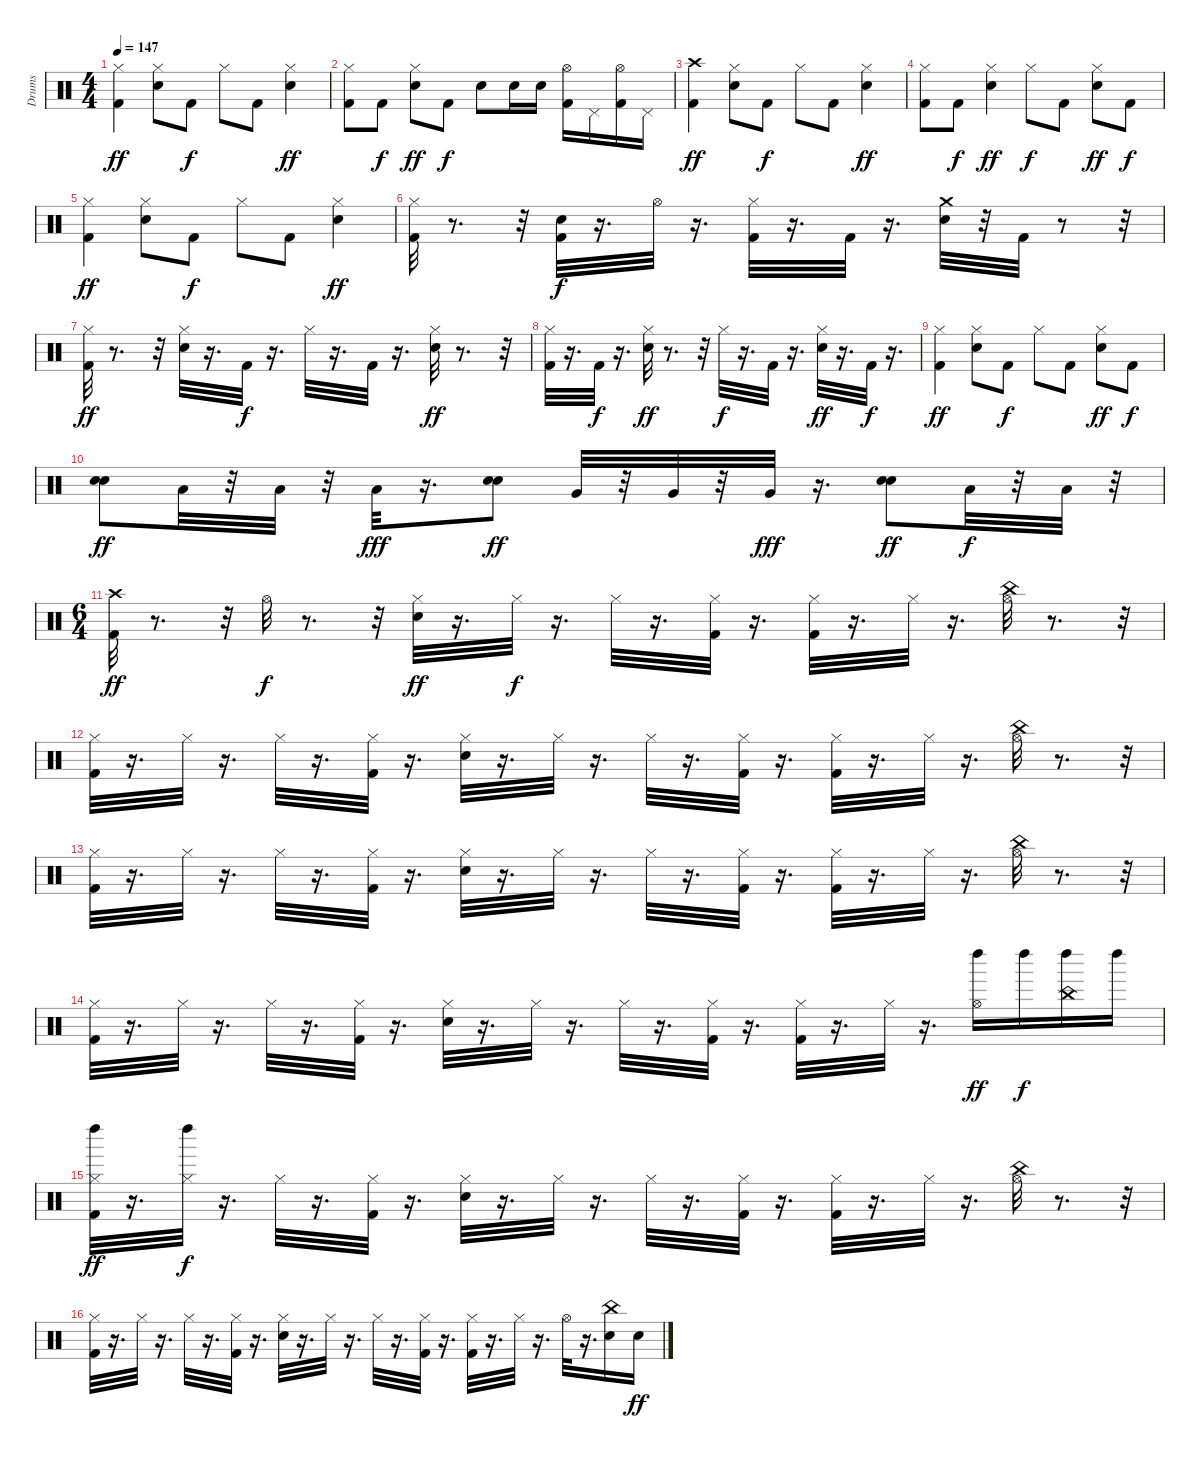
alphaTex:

\track ("Drums" "Drums") {instrument percussion}
\staff {score}
\articulation defaults
\ts (4 4)
\tempo 147
\clef neutral
\ks c
("Kick (hit) 2" "Hi-Hat (closed)").4{dy ff} ("Snare (hit) 2" "Hi-Hat (closed)").8 "Kick (hit) 2".8{dy f} "Hi-Hat (closed)".8 "Kick (hit) 2".8 ("Hi-Hat (closed)" "Snare (hit) 2").4{dy ff} |
("Kick (hit) 2" "Hi-Hat (closed)").8 "Kick (hit) 2".8{dy f} ("Snare (hit) 2" "Hi-Hat (closed)").8{dy ff} "Kick (hit) 2".8{dy f} "Snare (hit) 2".8 "Snare (hit) 2".16 "Snare (hit) 2".16 ("Hi-Hat (open)" "Kick (hit) 2").16 "Pedal Hi-Hat (hit)".16 ("Hi-Hat (open)" "Kick (hit) 2").16 "Pedal Hi-Hat (hit)".16 |
("Crash high (hit)" "Kick (hit) 2").4{dy ff} ("Snare (hit) 2" "Hi-Hat (closed)").8 "Kick (hit) 2".8{dy f} "Hi-Hat (closed)".8 "Kick (hit) 2".8 ("Hi-Hat (closed)" "Snare (hit) 2").4{dy ff} |
("Kick (hit) 2" "Hi-Hat (closed)").8 "Kick (hit) 2".8{dy f} ("Snare (hit) 2" "Hi-Hat (closed)").4{dy ff} "Hi-Hat (closed)".8{dy f} "Kick (hit) 2".8 ("Hi-Hat (closed)" "Snare (hit) 2").8{dy ff} "Kick (hit) 2".8{dy f} |
("Kick (hit) 2" "Hi-Hat (closed)").4{dy ff} ("Snare (hit) 2" "Hi-Hat (closed)").8 "Kick (hit) 2".8{dy f} "Hi-Hat (closed)".8 "Kick (hit) 2".8 ("Hi-Hat (closed)" "Snare (hit) 2").4{dy ff} |
("Kick (hit) 2" "Hi-Hat (closed)").32 r.8{d} r.32 ("Kick (hit) 2" "Snare (hit) 2").32{dy f} r.16{d} "Hi-Hat (open)".32 r.16{d} ("Kick (hit) 2" "Hi-Hat (closed)").32 r.16{d} "Kick (hit) 2".32 r.16{d} ("Crash medium (hit)" "Snare (hit) 2").32 r.32 "Kick (hit) 2".32 r.8 r.32 |
("Kick (hit) 2" "Hi-Hat (closed)").32{dy ff} r.8{d} r.32 ("Snare (hit) 2" "Hi-Hat (closed)").32 r.16{d} "Kick (hit) 2".32{dy f} r.16{d} "Hi-Hat (closed)".32 r.16{d} "Kick (hit) 2".32 r.16{d} ("Hi-Hat (closed)" "Snare (hit) 2").32{dy ff} r.8{d} r.32 |
("Kick (hit) 2" "Hi-Hat (closed)").32 r.16{d} "Kick (hit) 2".32{dy f} r.16{d} ("Snare (hit) 2" "Hi-Hat (closed)").32{dy ff} r.8{d} r.32 "Hi-Hat (closed)".32{dy f} r.16{d} "Kick (hit) 2".32 r.16{d} ("Hi-Hat (closed)" "Snare (hit) 2").32{dy ff} r.16{d} "Kick (hit) 2".32{dy f} r.16{d} |
("Kick (hit) 2" "Hi-Hat (closed)").4{dy ff} ("Snare (hit) 2" "Hi-Hat (closed)").8 "Kick (hit) 2".8{dy f} "Hi-Hat (closed)".8 "Kick (hit) 2".8 ("Hi-Hat (closed)" "Snare (hit) 2").8{dy ff} "Kick (hit) 2".8{dy f} |
("Snare (hit) 2" "Snare (hit) 2").8{dy ff} "Low Tom (hit)".32 r.32 "Low Tom (hit)".32 r.32 "Low Tom (hit)".32{dy fff} r.16{d} ("Snare (hit) 2" "Snare (hit) 2").8{dy ff} "Very Low Tom (hit)".32 r.32 "Very Low Tom (hit)".32 r.32 "Very Low Tom (hit)".32{dy fff} r.16{d} ("Snare (hit) 2" "Snare (hit) 2").8{dy ff} "Low Floor Tom (hit)".32{dy f} r.32 "Low Floor Tom (hit)".32 r.32 |
\ts (6 4)
("Crash high (hit)" "Kick (hit) 2").32{dy ff} r.8{d} r.32 "Hi-Hat (open)".32{dy f} r.8{d} r.32 ("Snare (hit) 2" "Hi-Hat (closed)").32{dy ff} r.16{d} "Hi-Hat (closed)".32{dy f} r.16{d} "Hi-Hat (closed)".32 r.16{d} ("Kick (hit) 2" "Hi-Hat (closed)").32 r.16{d} ("Kick (hit) 2" "Hi-Hat (closed)").32 r.16{d} "Hi-Hat (closed)".32 r.16{d} ("Hi-Hat (open)" "China (hit)").32 r.8{d} r.32 |
("Kick (hit) 2" "Hi-Hat (closed)").32 r.16{d} "Hi-Hat (closed)".32 r.16{d} "Hi-Hat (closed)".32 r.16{d} ("Kick (hit) 2" "Hi-Hat (closed)").32 r.16{d} ("Snare (hit) 2" "Hi-Hat (closed)").32 r.16{d} "Hi-Hat (closed)".32 r.16{d} "Hi-Hat (closed)".32 r.16{d} ("Kick (hit) 2" "Hi-Hat (closed)").32 r.16{d} ("Kick (hit) 2" "Hi-Hat (closed)").32 r.16{d} "Hi-Hat (closed)".32 r.16{d} ("Hi-Hat (open)" "China (hit)").32 r.8{d} r.32 |
("Kick (hit) 2" "Hi-Hat (closed)").32 r.16{d} "Hi-Hat (closed)".32 r.16{d} "Hi-Hat (closed)".32 r.16{d} ("Kick (hit) 2" "Hi-Hat (closed)").32 r.16{d} ("Snare (hit) 2" "Hi-Hat (closed)").32 r.16{d} "Hi-Hat (closed)".32 r.16{d} "Hi-Hat (closed)".32 r.16{d} ("Kick (hit) 2" "Hi-Hat (closed)").32 r.16{d} ("Kick (hit) 2" "Hi-Hat (closed)").32 r.16{d} "Hi-Hat (closed)".32 r.16{d} ("Hi-Hat (open)" "China (hit)").32 r.8{d} r.32 |
("Kick (hit) 2" "Hi-Hat (closed)").32 r.16{d} "Hi-Hat (closed)".32 r.16{d} "Hi-Hat (closed)".32 r.16{d} ("Kick (hit) 2" "Hi-Hat (closed)").32 r.16{d} ("Snare (hit) 2" "Hi-Hat (closed)").32 r.16{d} "Hi-Hat (closed)".32 r.16{d} "Hi-Hat (closed)".32 r.16{d} ("Kick (hit) 2" "Hi-Hat (closed)").32 r.16{d} ("Kick (hit) 2" "Hi-Hat (closed)").32 r.16{d} "Hi-Hat (closed)".32 r.16{d} ("Left Maraca (hit)" "Hi-Hat (open)").16{dy ff} "Left Maraca (hit)".16{dy f} ("Left Maraca (hit)" "China (hit)").16 "Left Maraca (hit)".16 |
("Kick (hit) 2" "Hi-Hat (closed)" "Left Maraca (hit)").32{dy ff} r.16{d} ("Left Maraca (hit)" "Hi-Hat (closed)").32{dy f} r.16{d} "Hi-Hat (closed)".32 r.16{d} ("Kick (hit) 2" "Hi-Hat (closed)").32 r.16{d} ("Snare (hit) 2" "Hi-Hat (closed)").32 r.16{d} "Hi-Hat (closed)".32 r.16{d} "Hi-Hat (closed)".32 r.16{d} ("Kick (hit) 2" "Hi-Hat (closed)").32 r.16{d} ("Kick (hit) 2" "Hi-Hat (closed)").32 r.16{d} "Hi-Hat (closed)".32 r.16{d} ("Hi-Hat (open)" "China (hit)").32 r.8{d} r.32 |
("Kick (hit) 2" "Hi-Hat (closed)").32 r.16{d} "Hi-Hat (closed)".32 r.16{d} "Hi-Hat (closed)".32 r.16{d} ("Kick (hit) 2" "Hi-Hat (closed)").32 r.16{d} ("Snare (hit) 2" "Hi-Hat (closed)").32 r.16{d} "Hi-Hat (closed)".32 r.16{d} "Hi-Hat (closed)".32 r.16{d} ("Kick (hit) 2" "Hi-Hat (closed)").32 r.16{d} ("Kick (hit) 2" "Hi-Hat (closed)").32 r.16{d} "Hi-Hat (closed)".32 r.16{d} "Hi-Hat (open)".32 r.16{d} ("Snare (hit) 2" "China (hit)").16 "Snare (hit) 2".16{dy ff}
